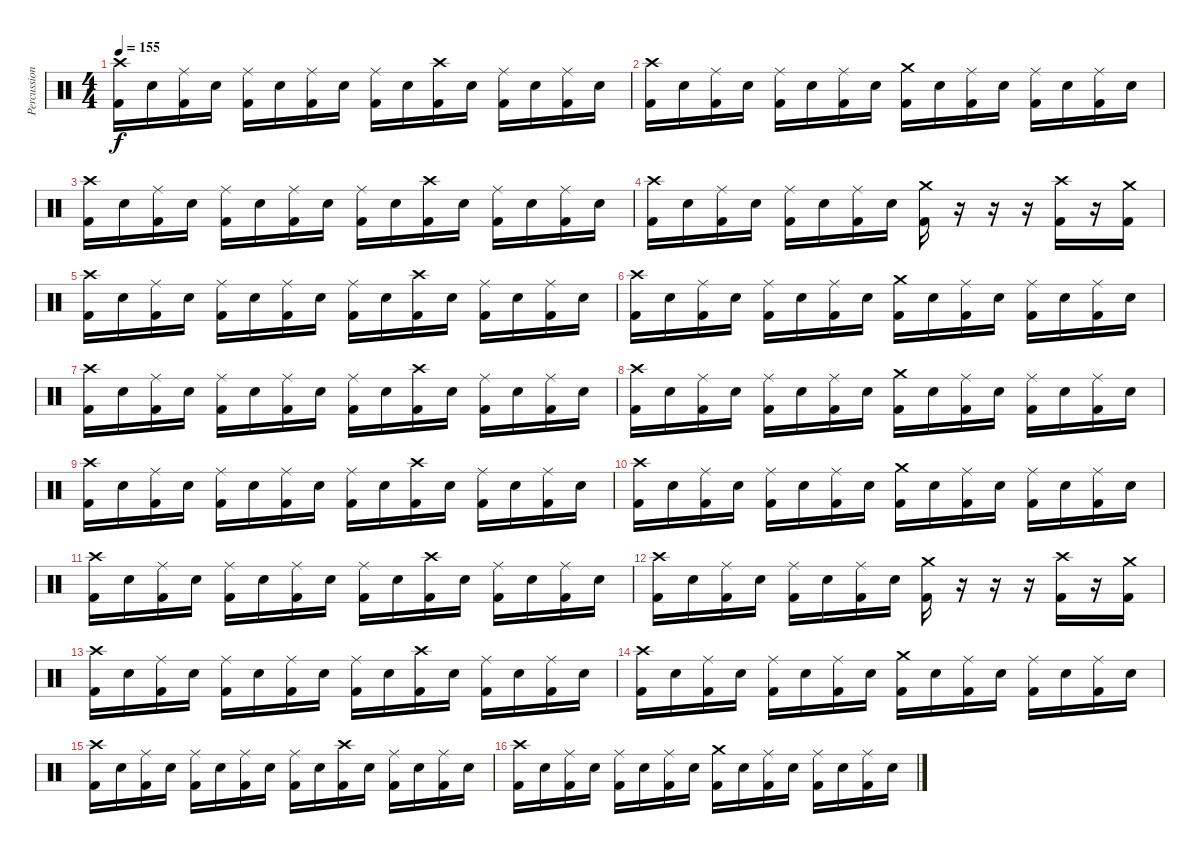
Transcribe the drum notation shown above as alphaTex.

\track ("Percussion" "Percussion") {instrument percussion}
\staff {score}
\articulation defaults
\ts (4 4)
\tempo 155
\clef neutral
\ks c
("Kick (hit) 2" "Crash high (hit)").16{dy f} "Snare (hit) 2".16 ("Kick (hit) 2" "Ride (middle)").16 "Snare (hit) 2".16 ("Kick (hit) 2" "Ride (middle)").16 "Snare (hit) 2".16 ("Kick (hit) 2" "Ride (middle)").16 "Snare (hit) 2".16 ("Kick (hit) 2" "Ride (middle)").16 "Snare (hit) 2".16 ("Kick (hit) 2" "Crash high (hit)").16 "Snare (hit) 2".16 ("Kick (hit) 2" "Ride (middle)").16 "Snare (hit) 2".16 ("Kick (hit) 2" "Ride (middle)").16 "Snare (hit) 2".16 |
("Kick (hit) 2" "Crash high (hit)").16 "Snare (hit) 2".16 ("Kick (hit) 2" "Ride (middle)").16 "Snare (hit) 2".16 ("Kick (hit) 2" "Ride (middle)").16 "Snare (hit) 2".16 ("Kick (hit) 2" "Ride (middle)").16 "Snare (hit) 2".16 ("Kick (hit) 2" "Crash medium (hit)").16 "Snare (hit) 2".16 ("Kick (hit) 2" "Ride (middle)").16 "Snare (hit) 2".16 ("Kick (hit) 2" "Ride (middle)").16 "Snare (hit) 2".16 ("Kick (hit) 2" "Ride (middle)").16 "Snare (hit) 2".16 |
("Kick (hit) 2" "Crash high (hit)").16 "Snare (hit) 2".16 ("Kick (hit) 2" "Ride (middle)").16 "Snare (hit) 2".16 ("Kick (hit) 2" "Ride (middle)").16 "Snare (hit) 2".16 ("Kick (hit) 2" "Ride (middle)").16 "Snare (hit) 2".16 ("Kick (hit) 2" "Ride (middle)").16 "Snare (hit) 2".16 ("Kick (hit) 2" "Crash high (hit)").16 "Snare (hit) 2".16 ("Kick (hit) 2" "Ride (middle)").16 "Snare (hit) 2".16 ("Kick (hit) 2" "Ride (middle)").16 "Snare (hit) 2".16 |
("Kick (hit) 2" "Crash high (hit)").16 "Snare (hit) 2".16 ("Kick (hit) 2" "Ride (middle)").16 "Snare (hit) 2".16 ("Kick (hit) 2" "Ride (middle)").16 "Snare (hit) 2".16 ("Kick (hit) 2" "Ride (middle)").16 "Snare (hit) 2".16 ("Kick (hit) 2" "Crash medium (hit)").16 r.16 r.16 r.16 ("Kick (hit) 2" "Crash high (hit)").16 r.16 ("Kick (hit) 2" "Crash medium (hit)").16 |
("Kick (hit) 2" "Crash high (hit)").16 "Snare (hit) 2".16 ("Kick (hit) 2" "Ride (middle)").16 "Snare (hit) 2".16 ("Kick (hit) 2" "Ride (middle)").16 "Snare (hit) 2".16 ("Kick (hit) 2" "Ride (middle)").16 "Snare (hit) 2".16 ("Kick (hit) 2" "Ride (middle)").16 "Snare (hit) 2".16 ("Kick (hit) 2" "Crash high (hit)").16 "Snare (hit) 2".16 ("Kick (hit) 2" "Ride (middle)").16 "Snare (hit) 2".16 ("Kick (hit) 2" "Ride (middle)").16 "Snare (hit) 2".16 |
("Kick (hit) 2" "Crash high (hit)").16 "Snare (hit) 2".16 ("Kick (hit) 2" "Ride (middle)").16 "Snare (hit) 2".16 ("Kick (hit) 2" "Ride (middle)").16 "Snare (hit) 2".16 ("Kick (hit) 2" "Ride (middle)").16 "Snare (hit) 2".16 ("Kick (hit) 2" "Crash medium (hit)").16 "Snare (hit) 2".16 ("Kick (hit) 2" "Ride (middle)").16 "Snare (hit) 2".16 ("Kick (hit) 2" "Ride (middle)").16 "Snare (hit) 2".16 ("Kick (hit) 2" "Ride (middle)").16 "Snare (hit) 2".16 |
("Kick (hit) 2" "Crash high (hit)").16 "Snare (hit) 2".16 ("Kick (hit) 2" "Ride (middle)").16 "Snare (hit) 2".16 ("Kick (hit) 2" "Ride (middle)").16 "Snare (hit) 2".16 ("Kick (hit) 2" "Ride (middle)").16 "Snare (hit) 2".16 ("Kick (hit) 2" "Ride (middle)").16 "Snare (hit) 2".16 ("Kick (hit) 2" "Crash high (hit)").16 "Snare (hit) 2".16 ("Kick (hit) 2" "Ride (middle)").16 "Snare (hit) 2".16 ("Kick (hit) 2" "Ride (middle)").16 "Snare (hit) 2".16 |
("Kick (hit) 2" "Crash high (hit)").16 "Snare (hit) 2".16 ("Kick (hit) 2" "Ride (middle)").16 "Snare (hit) 2".16 ("Kick (hit) 2" "Ride (middle)").16 "Snare (hit) 2".16 ("Kick (hit) 2" "Ride (middle)").16 "Snare (hit) 2".16 ("Kick (hit) 2" "Crash medium (hit)").16 "Snare (hit) 2".16 ("Kick (hit) 2" "Ride (middle)").16 "Snare (hit) 2".16 ("Kick (hit) 2" "Ride (middle)").16 "Snare (hit) 2".16 ("Kick (hit) 2" "Ride (middle)").16 "Snare (hit) 2".16 |
("Kick (hit) 2" "Crash high (hit)").16 "Snare (hit) 2".16 ("Kick (hit) 2" "Ride (middle)").16 "Snare (hit) 2".16 ("Kick (hit) 2" "Ride (middle)").16 "Snare (hit) 2".16 ("Kick (hit) 2" "Ride (middle)").16 "Snare (hit) 2".16 ("Kick (hit) 2" "Ride (middle)").16 "Snare (hit) 2".16 ("Kick (hit) 2" "Crash high (hit)").16 "Snare (hit) 2".16 ("Kick (hit) 2" "Ride (middle)").16 "Snare (hit) 2".16 ("Kick (hit) 2" "Ride (middle)").16 "Snare (hit) 2".16 |
("Kick (hit) 2" "Crash high (hit)").16 "Snare (hit) 2".16 ("Kick (hit) 2" "Ride (middle)").16 "Snare (hit) 2".16 ("Kick (hit) 2" "Ride (middle)").16 "Snare (hit) 2".16 ("Kick (hit) 2" "Ride (middle)").16 "Snare (hit) 2".16 ("Kick (hit) 2" "Crash medium (hit)").16 "Snare (hit) 2".16 ("Kick (hit) 2" "Ride (middle)").16 "Snare (hit) 2".16 ("Kick (hit) 2" "Ride (middle)").16 "Snare (hit) 2".16 ("Kick (hit) 2" "Ride (middle)").16 "Snare (hit) 2".16 |
("Kick (hit) 2" "Crash high (hit)").16 "Snare (hit) 2".16 ("Kick (hit) 2" "Ride (middle)").16 "Snare (hit) 2".16 ("Kick (hit) 2" "Ride (middle)").16 "Snare (hit) 2".16 ("Kick (hit) 2" "Ride (middle)").16 "Snare (hit) 2".16 ("Kick (hit) 2" "Ride (middle)").16 "Snare (hit) 2".16 ("Kick (hit) 2" "Crash high (hit)").16 "Snare (hit) 2".16 ("Kick (hit) 2" "Ride (middle)").16 "Snare (hit) 2".16 ("Kick (hit) 2" "Ride (middle)").16 "Snare (hit) 2".16 |
("Kick (hit) 2" "Crash high (hit)").16 "Snare (hit) 2".16 ("Kick (hit) 2" "Ride (middle)").16 "Snare (hit) 2".16 ("Kick (hit) 2" "Ride (middle)").16 "Snare (hit) 2".16 ("Kick (hit) 2" "Ride (middle)").16 "Snare (hit) 2".16 ("Kick (hit) 2" "Crash medium (hit)").16 r.16 r.16 r.16 ("Kick (hit) 2" "Crash high (hit)").16 r.16 ("Kick (hit) 2" "Crash medium (hit)").16 |
("Kick (hit) 2" "Crash high (hit)").16 "Snare (hit) 2".16 ("Kick (hit) 2" "Ride (middle)").16 "Snare (hit) 2".16 ("Kick (hit) 2" "Ride (middle)").16 "Snare (hit) 2".16 ("Kick (hit) 2" "Ride (middle)").16 "Snare (hit) 2".16 ("Kick (hit) 2" "Ride (middle)").16 "Snare (hit) 2".16 ("Kick (hit) 2" "Crash high (hit)").16 "Snare (hit) 2".16 ("Kick (hit) 2" "Ride (middle)").16 "Snare (hit) 2".16 ("Kick (hit) 2" "Ride (middle)").16 "Snare (hit) 2".16 |
("Kick (hit) 2" "Crash high (hit)").16 "Snare (hit) 2".16 ("Kick (hit) 2" "Ride (middle)").16 "Snare (hit) 2".16 ("Kick (hit) 2" "Ride (middle)").16 "Snare (hit) 2".16 ("Kick (hit) 2" "Ride (middle)").16 "Snare (hit) 2".16 ("Kick (hit) 2" "Crash medium (hit)").16 "Snare (hit) 2".16 ("Kick (hit) 2" "Ride (middle)").16 "Snare (hit) 2".16 ("Kick (hit) 2" "Ride (middle)").16 "Snare (hit) 2".16 ("Kick (hit) 2" "Ride (middle)").16 "Snare (hit) 2".16 |
("Kick (hit) 2" "Crash high (hit)").16 "Snare (hit) 2".16 ("Kick (hit) 2" "Ride (middle)").16 "Snare (hit) 2".16 ("Kick (hit) 2" "Ride (middle)").16 "Snare (hit) 2".16 ("Kick (hit) 2" "Ride (middle)").16 "Snare (hit) 2".16 ("Kick (hit) 2" "Ride (middle)").16 "Snare (hit) 2".16 ("Kick (hit) 2" "Crash high (hit)").16 "Snare (hit) 2".16 ("Kick (hit) 2" "Ride (middle)").16 "Snare (hit) 2".16 ("Kick (hit) 2" "Ride (middle)").16 "Snare (hit) 2".16 |
("Kick (hit) 2" "Crash high (hit)").16 "Snare (hit) 2".16 ("Kick (hit) 2" "Ride (middle)").16 "Snare (hit) 2".16 ("Kick (hit) 2" "Ride (middle)").16 "Snare (hit) 2".16 ("Kick (hit) 2" "Ride (middle)").16 "Snare (hit) 2".16 ("Kick (hit) 2" "Crash medium (hit)").16 "Snare (hit) 2".16 ("Kick (hit) 2" "Ride (middle)").16 "Snare (hit) 2".16 ("Kick (hit) 2" "Ride (middle)").16 "Snare (hit) 2".16 ("Kick (hit) 2" "Ride (middle)").16 "Snare (hit) 2".16
